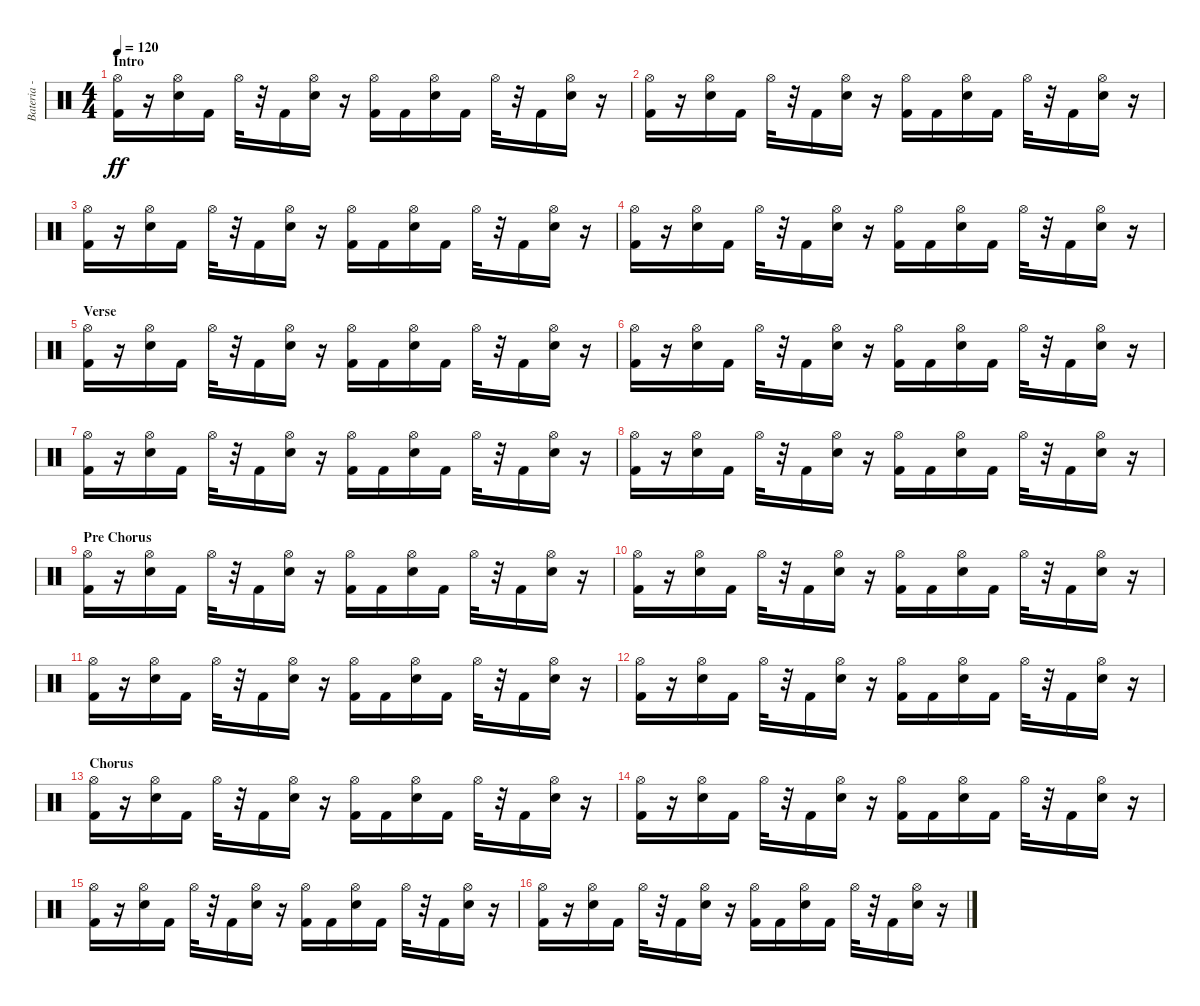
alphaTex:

\track ("Bateria - Marky" "Bateria - ") {instrument percussion}
\staff {score}
\articulation defaults
\ts (4 4)
\section ("" "Intro")
\tempo 120
\clef neutral
\ks c
("Kick (hit) 2" "Hi-Hat (open)").16{dy ff} r.16 ("Electric Snare (hit)" "Hi-Hat (open)").16 "Kick (hit) 2".16 "Hi-Hat (open)".32 r.32 "Kick (hit) 2".16 ("Electric Snare (hit)" "Hi-Hat (open)").16 r.16 ("Kick (hit) 2" "Hi-Hat (open)").16 "Kick (hit) 2".16 ("Electric Snare (hit)" "Hi-Hat (open)").16 "Kick (hit) 2".16 "Hi-Hat (open)".32 r.32 "Kick (hit) 2".16 ("Electric Snare (hit)" "Hi-Hat (open)").16 r.16 |
("Kick (hit) 2" "Hi-Hat (open)").16 r.16 ("Electric Snare (hit)" "Hi-Hat (open)").16 "Kick (hit) 2".16 "Hi-Hat (open)".32 r.32 "Kick (hit) 2".16 ("Electric Snare (hit)" "Hi-Hat (open)").16 r.16 ("Kick (hit) 2" "Hi-Hat (open)").16 "Kick (hit) 2".16 ("Electric Snare (hit)" "Hi-Hat (open)").16 "Kick (hit) 2".16 "Hi-Hat (open)".32 r.32 "Kick (hit) 2".16 ("Electric Snare (hit)" "Hi-Hat (open)").16 r.16 |
("Kick (hit) 2" "Hi-Hat (open)").16 r.16 ("Electric Snare (hit)" "Hi-Hat (open)").16 "Kick (hit) 2".16 "Hi-Hat (open)".32 r.32 "Kick (hit) 2".16 ("Electric Snare (hit)" "Hi-Hat (open)").16 r.16 ("Kick (hit) 2" "Hi-Hat (open)").16 "Kick (hit) 2".16 ("Electric Snare (hit)" "Hi-Hat (open)").16 "Kick (hit) 2".16 "Hi-Hat (open)".32 r.32 "Kick (hit) 2".16 ("Electric Snare (hit)" "Hi-Hat (open)").16 r.16 |
("Kick (hit) 2" "Hi-Hat (open)").16 r.16 ("Electric Snare (hit)" "Hi-Hat (open)").16 "Kick (hit) 2".16 "Hi-Hat (open)".32 r.32 "Kick (hit) 2".16 ("Electric Snare (hit)" "Hi-Hat (open)").16 r.16 ("Kick (hit) 2" "Hi-Hat (open)").16 "Kick (hit) 2".16 ("Electric Snare (hit)" "Hi-Hat (open)").16 "Kick (hit) 2".16 "Hi-Hat (open)".32 r.32 "Kick (hit) 2".16 ("Electric Snare (hit)" "Hi-Hat (open)").16 r.16 |
\section ("" "Verse")
("Kick (hit) 2" "Hi-Hat (open)").16 r.16 ("Electric Snare (hit)" "Hi-Hat (open)").16 "Kick (hit) 2".16 "Hi-Hat (open)".32 r.32 "Kick (hit) 2".16 ("Electric Snare (hit)" "Hi-Hat (open)").16 r.16 ("Kick (hit) 2" "Hi-Hat (open)").16 "Kick (hit) 2".16 ("Electric Snare (hit)" "Hi-Hat (open)").16 "Kick (hit) 2".16 "Hi-Hat (open)".32 r.32 "Kick (hit) 2".16 ("Electric Snare (hit)" "Hi-Hat (open)").16 r.16 |
("Kick (hit) 2" "Hi-Hat (open)").16 r.16 ("Electric Snare (hit)" "Hi-Hat (open)").16 "Kick (hit) 2".16 "Hi-Hat (open)".32 r.32 "Kick (hit) 2".16 ("Electric Snare (hit)" "Hi-Hat (open)").16 r.16 ("Kick (hit) 2" "Hi-Hat (open)").16 "Kick (hit) 2".16 ("Electric Snare (hit)" "Hi-Hat (open)").16 "Kick (hit) 2".16 "Hi-Hat (open)".32 r.32 "Kick (hit) 2".16 ("Electric Snare (hit)" "Hi-Hat (open)").16 r.16 |
("Kick (hit) 2" "Hi-Hat (open)").16 r.16 ("Electric Snare (hit)" "Hi-Hat (open)").16 "Kick (hit) 2".16 "Hi-Hat (open)".32 r.32 "Kick (hit) 2".16 ("Electric Snare (hit)" "Hi-Hat (open)").16 r.16 ("Kick (hit) 2" "Hi-Hat (open)").16 "Kick (hit) 2".16 ("Electric Snare (hit)" "Hi-Hat (open)").16 "Kick (hit) 2".16 "Hi-Hat (open)".32 r.32 "Kick (hit) 2".16 ("Electric Snare (hit)" "Hi-Hat (open)").16 r.16 |
("Kick (hit) 2" "Hi-Hat (open)").16 r.16 ("Electric Snare (hit)" "Hi-Hat (open)").16 "Kick (hit) 2".16 "Hi-Hat (open)".32 r.32 "Kick (hit) 2".16 ("Electric Snare (hit)" "Hi-Hat (open)").16 r.16 ("Kick (hit) 2" "Hi-Hat (open)").16 "Kick (hit) 2".16 ("Electric Snare (hit)" "Hi-Hat (open)").16 "Kick (hit) 2".16 "Hi-Hat (open)".32 r.32 "Kick (hit) 2".16 ("Electric Snare (hit)" "Hi-Hat (open)").16 r.16 |
\section ("" "Pre Chorus")
("Kick (hit) 2" "Hi-Hat (open)").16 r.16 ("Electric Snare (hit)" "Hi-Hat (open)").16 "Kick (hit) 2".16 "Hi-Hat (open)".32 r.32 "Kick (hit) 2".16 ("Electric Snare (hit)" "Hi-Hat (open)").16 r.16 ("Kick (hit) 2" "Hi-Hat (open)").16 "Kick (hit) 2".16 ("Electric Snare (hit)" "Hi-Hat (open)").16 "Kick (hit) 2".16 "Hi-Hat (open)".32 r.32 "Kick (hit) 2".16 ("Electric Snare (hit)" "Hi-Hat (open)").16 r.16 |
("Kick (hit) 2" "Hi-Hat (open)").16 r.16 ("Electric Snare (hit)" "Hi-Hat (open)").16 "Kick (hit) 2".16 "Hi-Hat (open)".32 r.32 "Kick (hit) 2".16 ("Electric Snare (hit)" "Hi-Hat (open)").16 r.16 ("Kick (hit) 2" "Hi-Hat (open)").16 "Kick (hit) 2".16 ("Electric Snare (hit)" "Hi-Hat (open)").16 "Kick (hit) 2".16 "Hi-Hat (open)".32 r.32 "Kick (hit) 2".16 ("Electric Snare (hit)" "Hi-Hat (open)").16 r.16 |
("Kick (hit) 2" "Hi-Hat (open)").16 r.16 ("Electric Snare (hit)" "Hi-Hat (open)").16 "Kick (hit) 2".16 "Hi-Hat (open)".32 r.32 "Kick (hit) 2".16 ("Electric Snare (hit)" "Hi-Hat (open)").16 r.16 ("Kick (hit) 2" "Hi-Hat (open)").16 "Kick (hit) 2".16 ("Electric Snare (hit)" "Hi-Hat (open)").16 "Kick (hit) 2".16 "Hi-Hat (open)".32 r.32 "Kick (hit) 2".16 ("Electric Snare (hit)" "Hi-Hat (open)").16 r.16 |
("Kick (hit) 2" "Hi-Hat (open)").16 r.16 ("Electric Snare (hit)" "Hi-Hat (open)").16 "Kick (hit) 2".16 "Hi-Hat (open)".32 r.32 "Kick (hit) 2".16 ("Electric Snare (hit)" "Hi-Hat (open)").16 r.16 ("Kick (hit) 2" "Hi-Hat (open)").16 "Kick (hit) 2".16 ("Electric Snare (hit)" "Hi-Hat (open)").16 "Kick (hit) 2".16 "Hi-Hat (open)".32 r.32 "Kick (hit) 2".16 ("Electric Snare (hit)" "Hi-Hat (open)").16 r.16 |
\section ("" "Chorus")
("Kick (hit) 2" "Hi-Hat (open)").16 r.16 ("Electric Snare (hit)" "Hi-Hat (open)").16 "Kick (hit) 2".16 "Hi-Hat (open)".32 r.32 "Kick (hit) 2".16 ("Electric Snare (hit)" "Hi-Hat (open)").16 r.16 ("Kick (hit) 2" "Hi-Hat (open)").16 "Kick (hit) 2".16 ("Electric Snare (hit)" "Hi-Hat (open)").16 "Kick (hit) 2".16 "Hi-Hat (open)".32 r.32 "Kick (hit) 2".16 ("Electric Snare (hit)" "Hi-Hat (open)").16 r.16 |
("Kick (hit) 2" "Hi-Hat (open)").16 r.16 ("Electric Snare (hit)" "Hi-Hat (open)").16 "Kick (hit) 2".16 "Hi-Hat (open)".32 r.32 "Kick (hit) 2".16 ("Electric Snare (hit)" "Hi-Hat (open)").16 r.16 ("Kick (hit) 2" "Hi-Hat (open)").16 "Kick (hit) 2".16 ("Electric Snare (hit)" "Hi-Hat (open)").16 "Kick (hit) 2".16 "Hi-Hat (open)".32 r.32 "Kick (hit) 2".16 ("Electric Snare (hit)" "Hi-Hat (open)").16 r.16 |
("Kick (hit) 2" "Hi-Hat (open)").16 r.16 ("Electric Snare (hit)" "Hi-Hat (open)").16 "Kick (hit) 2".16 "Hi-Hat (open)".32 r.32 "Kick (hit) 2".16 ("Electric Snare (hit)" "Hi-Hat (open)").16 r.16 ("Kick (hit) 2" "Hi-Hat (open)").16 "Kick (hit) 2".16 ("Electric Snare (hit)" "Hi-Hat (open)").16 "Kick (hit) 2".16 "Hi-Hat (open)".32 r.32 "Kick (hit) 2".16 ("Electric Snare (hit)" "Hi-Hat (open)").16 r.16 |
("Kick (hit) 2" "Hi-Hat (open)").16 r.16 ("Electric Snare (hit)" "Hi-Hat (open)").16 "Kick (hit) 2".16 "Hi-Hat (open)".32 r.32 "Kick (hit) 2".16 ("Electric Snare (hit)" "Hi-Hat (open)").16 r.16 ("Kick (hit) 2" "Hi-Hat (open)").16 "Kick (hit) 2".16 ("Electric Snare (hit)" "Hi-Hat (open)").16 "Kick (hit) 2".16 "Hi-Hat (open)".32 r.32 "Kick (hit) 2".16 ("Electric Snare (hit)" "Hi-Hat (open)").16 r.16
